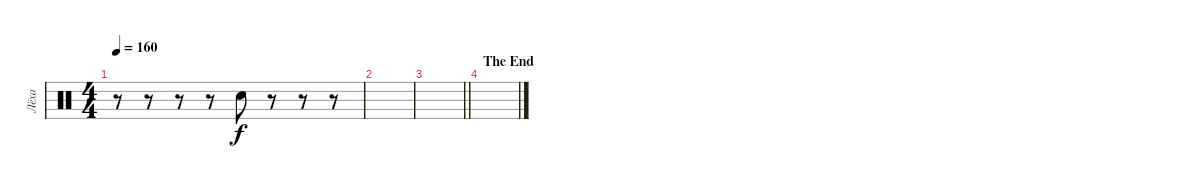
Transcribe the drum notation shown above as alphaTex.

\track ("Лёха" "Лёха") {instrument percussion}
\staff {score}
\articulation defaults
\ts (4 4)
\tempo 160
\clef neutral
\ks c
r.8{dy f} r.8 r.8 r.8 "Snare (hit)"{t}.8 r.8 r.8 r.8 |
|
\barLineRight lightlight
|
\section ("" "The End ")
